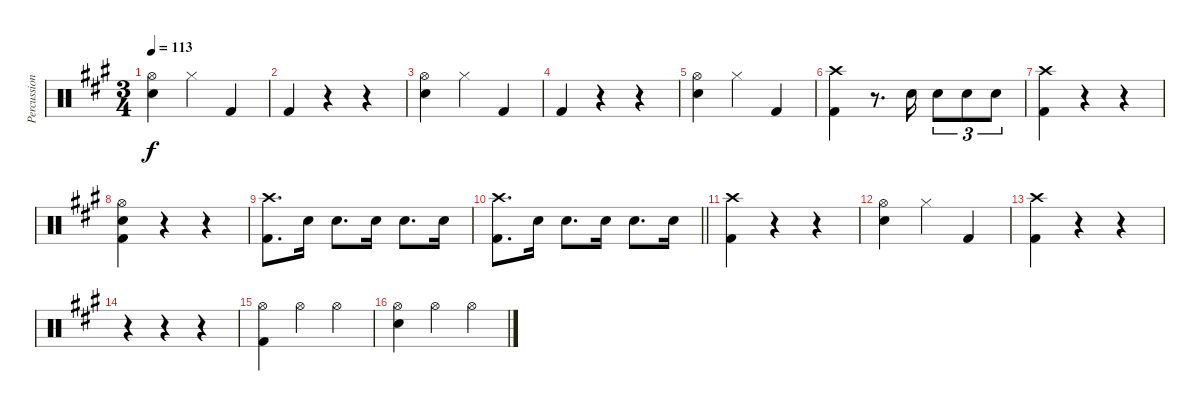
\track ("Percussion" "Percussion") {instrument percussion}
\staff {score}
\articulation defaults
\ts (3 4)
\tempo 113
\clef neutral
\ks a
("Hi-Hat (open)" "Snare (hit) 2").4{dy f} "Hi-Hat (closed)".4 "Kick (hit) 2".4 |
"Kick (hit) 2".4 r.4 r.4 |
("Hi-Hat (open)" "Snare (hit) 2").4 "Hi-Hat (closed)".4 "Kick (hit) 2".4 |
"Kick (hit) 2".4 r.4 r.4 |
("Hi-Hat (open)" "Snare (hit) 2").4 "Hi-Hat (closed)".4 "Kick (hit) 2".4 |
("Crash high (hit)" "Kick (hit) 2").4 r.8{d} "Snare (hit) 2".16 "Snare (hit) 2".8{tu (3 2)} "Snare (hit) 2".8{tu (3 2)} "Snare (hit) 2".8{tu (3 2)} |
("Crash high (hit)" "Kick (hit) 2").4 r.4 r.4 |
("Hi-Hat (open)" "Snare (hit) 2" "Kick (hit) 2").4 r.4 r.4 |
("Crash high (hit)" "Kick (hit) 2").8{d} "Snare (hit) 2".16 "Snare (hit) 2".8{d} "Snare (hit) 2".16 "Snare (hit) 2".8{d} "Snare (hit) 2".16 |
\barLineRight lightlight
("Crash high (hit)" "Kick (hit) 2").8{d} "Snare (hit) 2".16 "Snare (hit) 2".8{d} "Snare (hit) 2".16 "Snare (hit) 2".8{d} "Snare (hit) 2".16 |
("Kick (hit) 2" "Crash high (hit)").4 r.4 r.4 |
("Hi-Hat (open)" "Snare (hit) 2").4 "Hi-Hat (closed)".4 "Kick (hit) 2".4 |
("Kick (hit) 2" "Crash high (hit)").4 r.4 r.4 |
r.4 r.4 r.4 |
("Hi-Hat (open)" "Kick (hit) 2").4 "Hi-Hat (open)".4 "Hi-Hat (open)".4 |
("Hi-Hat (open)" "Snare (hit) 2").4 "Hi-Hat (open)".4 "Hi-Hat (open)".4
